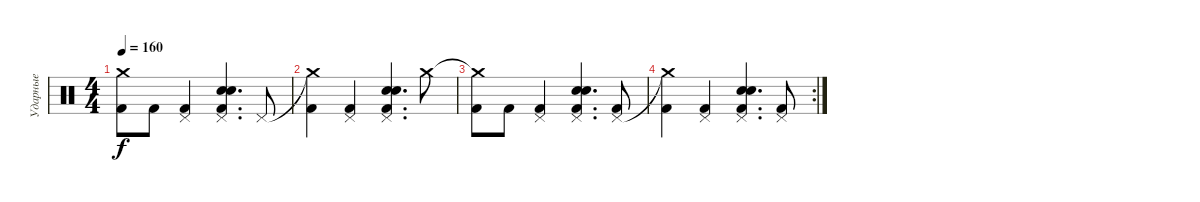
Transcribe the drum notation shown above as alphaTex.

\track ("Ударные" "Ударные") {instrument percussion}
\staff {score}
\articulation defaults
\ts (4 4)
\tempo 160
\clef neutral
\ks c
("Crash medium (hit)"{t} "Kick (hit) 2").8{dy f} "Kick (hit) 2".8 ("Pedal Hi-Hat (hit)" "Kick (hit) 2").4 ("Pedal Hi-Hat (hit)" "Snare (hit) 2" "Electric Snare (hit)" "Kick (hit) 2").4{d} "Pedal Hi-Hat (hit)".8 |
("Crash medium (hit)"{t} "Kick (hit) 2").4 ("Pedal Hi-Hat (hit)" "Kick (hit) 2").4 ("Pedal Hi-Hat (hit)" "Snare (hit) 2" "Electric Snare (hit)" "Kick (hit) 2").4{d} "Crash medium (hit)".8 |
("Crash medium (hit)"{t} "Kick (hit) 2").8 "Kick (hit) 2".8 ("Pedal Hi-Hat (hit)" "Kick (hit) 2").4 ("Pedal Hi-Hat (hit)" "Snare (hit) 2" "Electric Snare (hit)" "Kick (hit) 2").4{d} ("Pedal Hi-Hat (hit)" "Kick (hit) 2").8 |
\rc 2
("Crash medium (hit)"{t} "Kick (hit) 2").4 ("Pedal Hi-Hat (hit)" "Kick (hit) 2").4 ("Pedal Hi-Hat (hit)" "Snare (hit) 2" "Electric Snare (hit)" "Kick (hit) 2").4{d} ("Pedal Hi-Hat (hit)" "Kick (hit) 2").8
